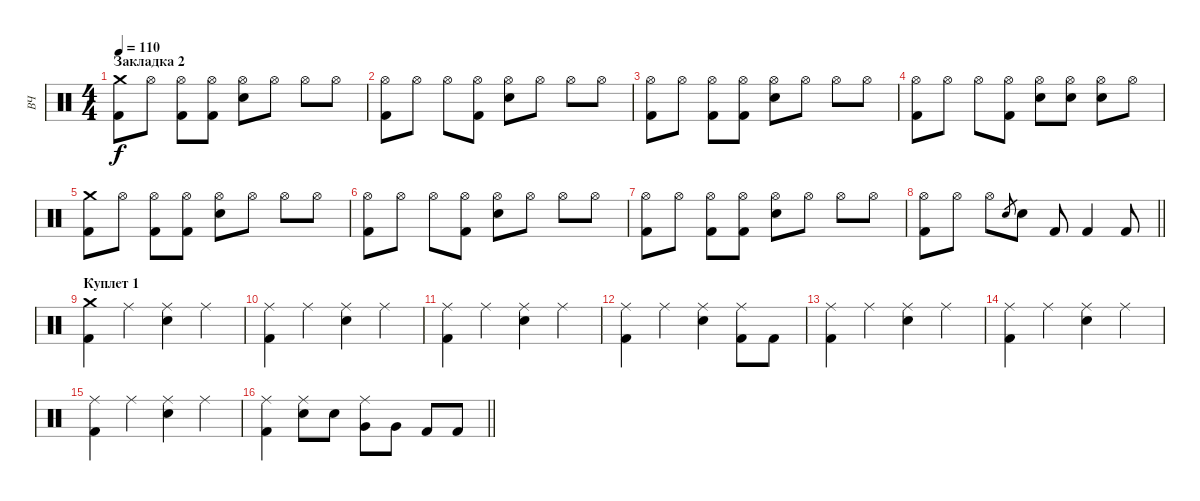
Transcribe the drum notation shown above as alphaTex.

\track ("ВЧ" "ВЧ") {instrument percussion}
\staff {score}
\articulation defaults
\ts (4 4)
\section ("" "Закладка 2")
\tempo 110
\clef neutral
\ks c
("Crash medium (hit)" "Kick (hit) 2").8{dy f} "Hi-Hat (open)".8 ("Hi-Hat (open)" "Kick (hit) 2").8 ("Hi-Hat (open)" "Kick (hit) 2").8 ("Hi-Hat (open)" "Snare (hit) 2").8 "Hi-Hat (open)".8 "Hi-Hat (open)".8 "Hi-Hat (open)".8 |
("Hi-Hat (open)" "Kick (hit) 2").8 "Hi-Hat (open)".8 "Hi-Hat (open)".8 ("Hi-Hat (open)" "Kick (hit) 2").8 ("Hi-Hat (open)" "Snare (hit) 2").8 "Hi-Hat (open)".8 "Hi-Hat (open)".8 "Hi-Hat (open)".8 |
("Hi-Hat (open)" "Kick (hit) 2").8 "Hi-Hat (open)".8 ("Hi-Hat (open)" "Kick (hit) 2").8 ("Hi-Hat (open)" "Kick (hit) 2").8 ("Hi-Hat (open)" "Snare (hit) 2").8 "Hi-Hat (open)".8 "Hi-Hat (open)".8 "Hi-Hat (open)".8 |
("Hi-Hat (open)" "Kick (hit) 2").8 "Hi-Hat (open)".8 "Hi-Hat (open)".8 ("Hi-Hat (open)" "Kick (hit) 2").8 ("Hi-Hat (open)" "Snare (hit) 2").8 ("Hi-Hat (open)" "Snare (hit) 2").8 ("Hi-Hat (open)" "Snare (hit) 2").8 "Hi-Hat (open)".8 |
("Crash medium (hit)" "Kick (hit) 2").8 "Hi-Hat (open)".8 ("Hi-Hat (open)" "Kick (hit) 2").8 ("Hi-Hat (open)" "Kick (hit) 2").8 ("Hi-Hat (open)" "Snare (hit) 2").8 "Hi-Hat (open)".8 "Hi-Hat (open)".8 "Hi-Hat (open)".8 |
("Hi-Hat (open)" "Kick (hit) 2").8 "Hi-Hat (open)".8 "Hi-Hat (open)".8 ("Hi-Hat (open)" "Kick (hit) 2").8 ("Hi-Hat (open)" "Snare (hit) 2").8 "Hi-Hat (open)".8 "Hi-Hat (open)".8 "Hi-Hat (open)".8 |
("Hi-Hat (open)" "Kick (hit) 2").8 "Hi-Hat (open)".8 ("Hi-Hat (open)" "Kick (hit) 2").8 ("Hi-Hat (open)" "Kick (hit) 2").8 ("Hi-Hat (open)" "Snare (hit) 2").8 "Hi-Hat (open)".8 "Hi-Hat (open)".8 "Hi-Hat (open)".8 |
\barLineRight lightlight
("Hi-Hat (open)" "Kick (hit) 2").8 "Hi-Hat (open)".8 "Hi-Hat (open)".8 "Snare (hit) 2".8{gr} "Snare (hit) 2".8 "Kick (hit) 2".8 "Kick (hit) 2".4 "Kick (hit) 2".8 |
\section ("" "Куплет 1")
("Crash medium (hit)" "Kick (hit) 2").4 "Ride (middle)".4 ("Ride (middle)" "Snare (hit) 2").4 "Ride (middle)".4 |
("Ride (middle)" "Kick (hit) 2").4 "Ride (middle)".4 ("Ride (middle)" "Snare (hit) 2").4 "Ride (middle)".4 |
("Ride (middle)" "Kick (hit) 2").4 "Ride (middle)".4 ("Ride (middle)" "Snare (hit) 2").4 "Ride (middle)".4 |
("Ride (middle)" "Kick (hit) 2").4 "Ride (middle)".4 ("Ride (middle)" "Snare (hit) 2").4 ("Ride (middle)" "Kick (hit) 2").8 "Kick (hit) 2".8 |
("Ride (middle)" "Kick (hit) 2").4 "Ride (middle)".4 ("Ride (middle)" "Snare (hit) 2").4 "Ride (middle)".4 |
("Ride (middle)" "Kick (hit) 2").4 "Ride (middle)".4 ("Ride (middle)" "Snare (hit) 2").4 "Ride (middle)".4 |
("Ride (middle)" "Kick (hit) 2").4 "Ride (middle)".4 ("Ride (middle)" "Snare (hit) 2").4 "Ride (middle)".4 |
\barLineRight lightlight
("Ride (middle)" "Kick (hit) 2").4 ("Ride (middle)" "Snare (hit) 2").8 "Snare (hit) 2".8 ("Ride (middle)" "Very Low Tom (hit)").8 "Very Low Tom (hit)".8 "Kick (hit) 2".8 "Kick (hit) 2".8
